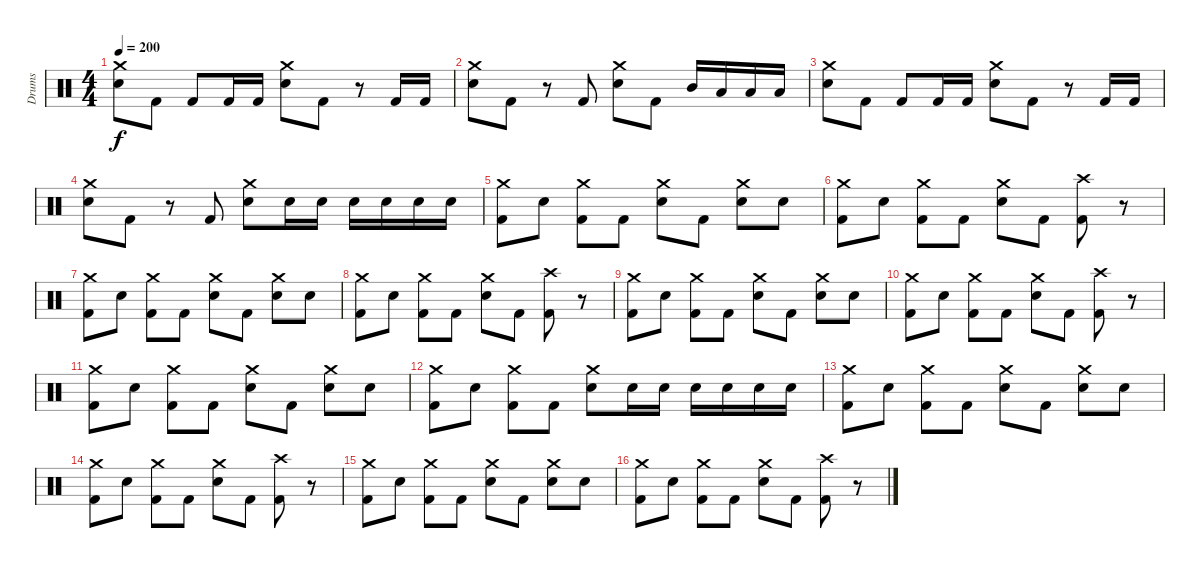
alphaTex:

\track ("Drums" "Drums") {instrument percussion}
\staff {score}
\articulation defaults
\ts (4 4)
\tempo 200
\clef neutral
\ks c
("Crash medium (hit)" "Electric Snare (hit)").8{dy f} "Kick (hit) 2".8 "Kick (hit) 2".8 "Kick (hit) 2".16 "Kick (hit) 2".16 ("Crash medium (hit)" "Electric Snare (hit)").8 "Kick (hit) 2".8 r.8 "Kick (hit) 2".16 "Kick (hit) 2".16 |
("Crash medium (hit)" "Electric Snare (hit)").8 "Kick (hit) 2".8 r.8 "Kick (hit) 2".8 ("Crash medium (hit)" "Electric Snare (hit)").8 "Kick (hit) 2".8 "Mid Tom (hit)".16 "Low Tom (hit)".16 "Low Floor Tom (hit)".16 "Low Floor Tom (hit)".16 |
("Crash medium (hit)" "Electric Snare (hit)").8 "Kick (hit) 2".8 "Kick (hit) 2".8 "Kick (hit) 2".16 "Kick (hit) 2".16 ("Crash medium (hit)" "Electric Snare (hit)").8 "Kick (hit) 2".8 r.8 "Kick (hit) 2".16 "Kick (hit) 2".16 |
("Crash medium (hit)" "Electric Snare (hit)").8 "Kick (hit) 2".8 r.8 "Kick (hit) 2".8 ("Crash medium (hit)" "Electric Snare (hit)").8 "Electric Snare (hit)".16 "Electric Snare (hit)".16 "Electric Snare (hit)".16 "Electric Snare (hit)".16 "Electric Snare (hit)".16 "Electric Snare (hit)".16 |
("Crash medium (hit)" "Kick (hit) 2").8 "Electric Snare (hit)".8 ("Crash medium (hit)" "Kick (hit) 2").8 "Kick (hit) 2".8 ("Crash medium (hit)" "Electric Snare (hit)").8 "Kick (hit) 2".8 ("Crash medium (hit)" "Electric Snare (hit)").8 "Electric Snare (hit)".8 |
("Crash medium (hit)" "Kick (hit) 2").8 "Electric Snare (hit)".8 ("Crash medium (hit)" "Kick (hit) 2").8 "Kick (hit) 2".8 ("Crash medium (hit)" "Electric Snare (hit)").8 "Kick (hit) 2".8 ("Crash high (hit)" "Kick (hit) 2").8 r.8 |
("Crash medium (hit)" "Kick (hit) 2").8 "Electric Snare (hit)".8 ("Crash medium (hit)" "Kick (hit) 2").8 "Kick (hit) 2".8 ("Crash medium (hit)" "Electric Snare (hit)").8 "Kick (hit) 2".8 ("Crash medium (hit)" "Electric Snare (hit)").8 "Electric Snare (hit)".8 |
("Crash medium (hit)" "Kick (hit) 2").8 "Electric Snare (hit)".8 ("Crash medium (hit)" "Kick (hit) 2").8 "Kick (hit) 2".8 ("Crash medium (hit)" "Electric Snare (hit)").8 "Kick (hit) 2".8 ("Crash high (hit)" "Kick (hit) 2").8 r.8 |
("Crash medium (hit)" "Kick (hit) 2").8 "Electric Snare (hit)".8 ("Crash medium (hit)" "Kick (hit) 2").8 "Kick (hit) 2".8 ("Crash medium (hit)" "Electric Snare (hit)").8 "Kick (hit) 2".8 ("Crash medium (hit)" "Electric Snare (hit)").8 "Electric Snare (hit)".8 |
("Crash medium (hit)" "Kick (hit) 2").8 "Electric Snare (hit)".8 ("Crash medium (hit)" "Kick (hit) 2").8 "Kick (hit) 2".8 ("Crash medium (hit)" "Electric Snare (hit)").8 "Kick (hit) 2".8 ("Crash high (hit)" "Kick (hit) 2").8 r.8 |
("Crash medium (hit)" "Kick (hit) 2").8 "Electric Snare (hit)".8 ("Crash medium (hit)" "Kick (hit) 2").8 "Kick (hit) 2".8 ("Crash medium (hit)" "Electric Snare (hit)").8 "Kick (hit) 2".8 ("Crash medium (hit)" "Electric Snare (hit)").8 "Electric Snare (hit)".8 |
("Crash medium (hit)" "Kick (hit) 2").8 "Electric Snare (hit)".8 ("Crash medium (hit)" "Kick (hit) 2").8 "Kick (hit) 2".8 ("Crash medium (hit)" "Electric Snare (hit)").8 "Electric Snare (hit)".16 "Electric Snare (hit)".16 "Electric Snare (hit)".16 "Electric Snare (hit)".16 "Electric Snare (hit)".16 "Electric Snare (hit)".16 |
("Crash medium (hit)" "Kick (hit) 2").8 "Electric Snare (hit)".8 ("Crash medium (hit)" "Kick (hit) 2").8 "Kick (hit) 2".8 ("Crash medium (hit)" "Electric Snare (hit)").8 "Kick (hit) 2".8 ("Crash medium (hit)" "Electric Snare (hit)").8 "Electric Snare (hit)".8 |
("Crash medium (hit)" "Kick (hit) 2").8 "Electric Snare (hit)".8 ("Crash medium (hit)" "Kick (hit) 2").8 "Kick (hit) 2".8 ("Crash medium (hit)" "Electric Snare (hit)").8 "Kick (hit) 2".8 ("Crash high (hit)" "Kick (hit) 2").8 r.8 |
("Crash medium (hit)" "Kick (hit) 2").8 "Electric Snare (hit)".8 ("Crash medium (hit)" "Kick (hit) 2").8 "Kick (hit) 2".8 ("Crash medium (hit)" "Electric Snare (hit)").8 "Kick (hit) 2".8 ("Crash medium (hit)" "Electric Snare (hit)").8 "Electric Snare (hit)".8 |
("Crash medium (hit)" "Kick (hit) 2").8 "Electric Snare (hit)".8 ("Crash medium (hit)" "Kick (hit) 2").8 "Kick (hit) 2".8 ("Crash medium (hit)" "Electric Snare (hit)").8 "Kick (hit) 2".8 ("Crash high (hit)" "Kick (hit) 2").8 r.8
